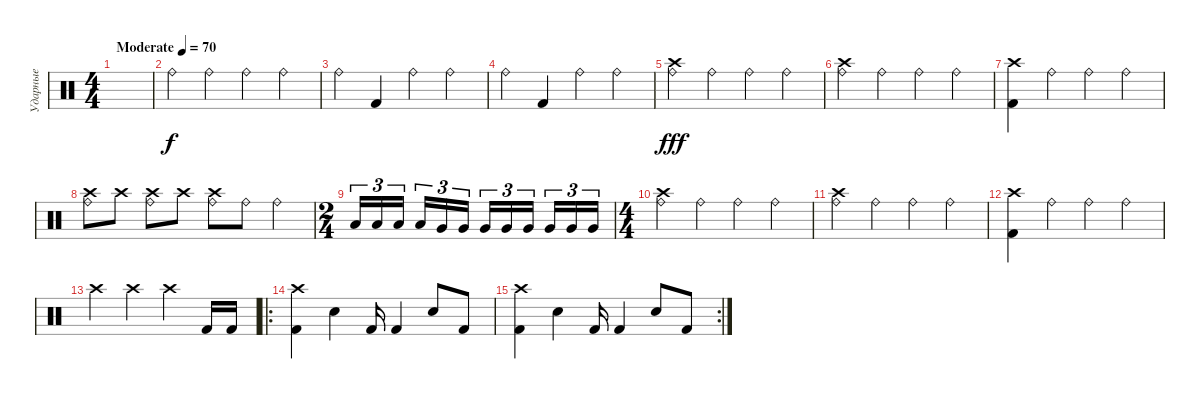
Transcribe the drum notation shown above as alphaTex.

\track ("Ударные" "Ударные") {instrument percussion}
\staff {score}
\articulation defaults
\ts (4 4)
\tempo (70 "Moderate")
\clef neutral
\ks c
|
"Ride (bell)".4 "Ride (bell)".4 "Ride (bell)".4 "Ride (bell)".4 |
"Ride (bell)".4 "Kick (hit) 2".4 "Ride (bell)".4 "Ride (bell)".4 |
"Ride (bell)".4 "Kick (hit) 2".4 "Ride (bell)".4 "Ride (bell)".4 |
("Ride (bell)" "Crash high (hit)").4{dy fff} "Ride (bell)".4 "Ride (bell)".4 "Ride (bell)".4 |
("Ride (bell)" "Crash high (hit)").4 "Ride (bell)".4 "Ride (bell)".4 "Ride (bell)".4 |
("Kick (hit) 2" "Crash high (hit)").4 "Ride (bell)".4 "Ride (bell)".4 "Ride (bell)".4 |
("Crash high (hit)" "Ride (bell)").8 "Crash high (hit)".8 ("Crash high (hit)" "Ride (bell)").8 "Crash high (hit)".8 ("Crash high (hit)" "Ride (bell)").8 "Ride (bell)".8 "Ride (bell)".4 |
\ts (2 4)
"Low Tom (hit)".16{tu (3 2)} "Low Tom (hit)".16{tu (3 2)} "Low Tom (hit)".16{tu (3 2) beam splitsecondary} "Low Tom (hit)".16{tu (3 2)} "Very Low Tom (hit)".16{tu (3 2)} "Very Low Tom (hit)".16{tu (3 2)} "Very Low Tom (hit)".16{tu (3 2)} "Very Low Tom (hit)".16{tu (3 2)} "Very Low Tom (hit)".16{tu (3 2) beam splitsecondary} "Very Low Tom (hit)".16{tu (3 2)} "Very Low Tom (hit)".16{tu (3 2)} "Very Low Tom (hit)".16{tu (3 2)} |
\ts (4 4)
("Ride (bell)" "Crash high (hit)").4 "Ride (bell)".4 "Ride (bell)".4 "Ride (bell)".4 |
("Ride (bell)" "Crash high (hit)").4 "Ride (bell)".4 "Ride (bell)".4 "Ride (bell)".4 |
("Kick (hit) 2" "Crash high (hit)").4 "Ride (bell)".4 "Ride (bell)".4 "Ride (bell)".4 |
"Crash high (hit)".4 "Crash high (hit)".4 "Crash high (hit)".4 "Kick (hit) 2".16 "Kick (hit) 2".16 |
\ro
("Kick (hit) 2" "Crash high (hit)").4 "Snare (hit) 2".4 "Kick (hit) 2".16 "Kick (hit) 2".4 "Snare (hit) 2".8 "Kick (hit) 2".8 |
\rc 2
("Kick (hit) 2" "Crash high (hit)").4 "Snare (hit) 2".4 "Kick (hit) 2".16 "Kick (hit) 2".4 "Snare (hit) 2".8 "Kick (hit) 2".8
